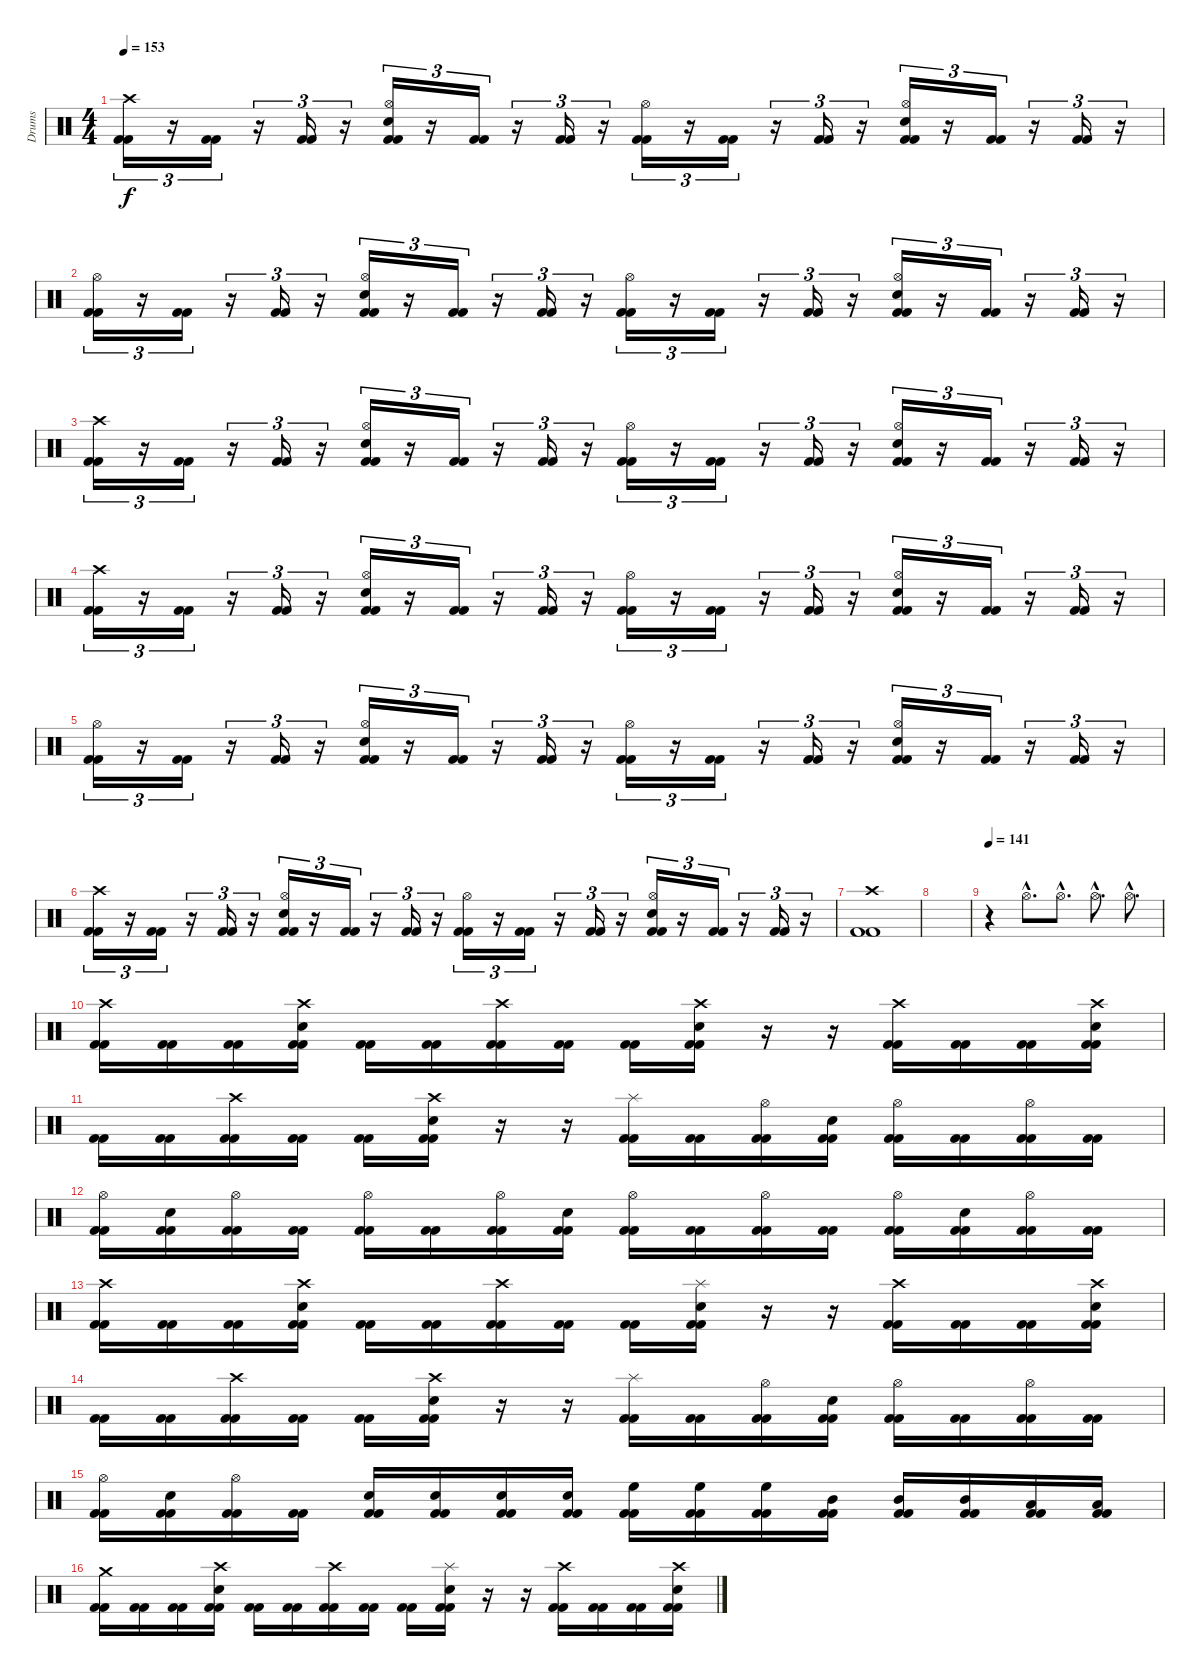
\track ("Drums" "Drums") {instrument percussion}
\staff {score}
\articulation defaults
\ts (4 4)
\tempo 153
\clef neutral
\ks c
("Crash high (hit)" "Kick (hit) 2" "Kick (hit) 2").16{tu (3 2) dy f} r.16{tu (3 2)} ("Kick (hit) 2" "Kick (hit) 2").16{tu (3 2)} r.16{tu (3 2)} ("Kick (hit) 2" "Kick (hit) 2").16{tu (3 2)} r.16{tu (3 2)} ("Hi-Hat (open)" "Snare (hit) 2" "Kick (hit) 2" "Kick (hit) 2").16{tu (3 2)} r.16{tu (3 2)} ("Kick (hit) 2" "Kick (hit) 2").16{tu (3 2)} r.16{tu (3 2)} ("Kick (hit) 2" "Kick (hit) 2").16{tu (3 2)} r.16{tu (3 2)} ("Hi-Hat (open)" "Kick (hit) 2" "Kick (hit) 2").16{tu (3 2)} r.16{tu (3 2)} ("Kick (hit) 2" "Kick (hit) 2").16{tu (3 2)} r.16{tu (3 2)} ("Kick (hit) 2" "Kick (hit) 2").16{tu (3 2)} r.16{tu (3 2)} ("Hi-Hat (open)" "Snare (hit) 2" "Kick (hit) 2" "Kick (hit) 2").16{tu (3 2)} r.16{tu (3 2)} ("Kick (hit) 2" "Kick (hit) 2").16{tu (3 2)} r.16{tu (3 2)} ("Kick (hit) 2" "Kick (hit) 2").16{tu (3 2)} r.16{tu (3 2)} |
("Hi-Hat (open)" "Kick (hit) 2" "Kick (hit) 2").16{tu (3 2)} r.16{tu (3 2)} ("Kick (hit) 2" "Kick (hit) 2").16{tu (3 2)} r.16{tu (3 2)} ("Kick (hit) 2" "Kick (hit) 2").16{tu (3 2)} r.16{tu (3 2)} ("Hi-Hat (open)" "Snare (hit) 2" "Kick (hit) 2" "Kick (hit) 2").16{tu (3 2)} r.16{tu (3 2)} ("Kick (hit) 2" "Kick (hit) 2").16{tu (3 2)} r.16{tu (3 2)} ("Kick (hit) 2" "Kick (hit) 2").16{tu (3 2)} r.16{tu (3 2)} ("Hi-Hat (open)" "Kick (hit) 2" "Kick (hit) 2").16{tu (3 2)} r.16{tu (3 2)} ("Kick (hit) 2" "Kick (hit) 2").16{tu (3 2)} r.16{tu (3 2)} ("Kick (hit) 2" "Kick (hit) 2").16{tu (3 2)} r.16{tu (3 2)} ("Hi-Hat (open)" "Snare (hit) 2" "Kick (hit) 2" "Kick (hit) 2").16{tu (3 2)} r.16{tu (3 2)} ("Kick (hit) 2" "Kick (hit) 2").16{tu (3 2)} r.16{tu (3 2)} ("Kick (hit) 2" "Kick (hit) 2").16{tu (3 2)} r.16{tu (3 2)} |
("Crash high (hit)" "Kick (hit) 2" "Kick (hit) 2").16{tu (3 2)} r.16{tu (3 2)} ("Kick (hit) 2" "Kick (hit) 2").16{tu (3 2)} r.16{tu (3 2)} ("Kick (hit) 2" "Kick (hit) 2").16{tu (3 2)} r.16{tu (3 2)} ("Hi-Hat (open)" "Snare (hit) 2" "Kick (hit) 2" "Kick (hit) 2").16{tu (3 2)} r.16{tu (3 2)} ("Kick (hit) 2" "Kick (hit) 2").16{tu (3 2)} r.16{tu (3 2)} ("Kick (hit) 2" "Kick (hit) 2").16{tu (3 2)} r.16{tu (3 2)} ("Hi-Hat (open)" "Kick (hit) 2" "Kick (hit) 2").16{tu (3 2)} r.16{tu (3 2)} ("Kick (hit) 2" "Kick (hit) 2").16{tu (3 2)} r.16{tu (3 2)} ("Kick (hit) 2" "Kick (hit) 2").16{tu (3 2)} r.16{tu (3 2)} ("Hi-Hat (open)" "Snare (hit) 2" "Kick (hit) 2" "Kick (hit) 2").16{tu (3 2)} r.16{tu (3 2)} ("Kick (hit) 2" "Kick (hit) 2").16{tu (3 2)} r.16{tu (3 2)} ("Kick (hit) 2" "Kick (hit) 2").16{tu (3 2)} r.16{tu (3 2)} |
("Crash high (hit)" "Kick (hit) 2" "Kick (hit) 2").16{tu (3 2)} r.16{tu (3 2)} ("Kick (hit) 2" "Kick (hit) 2").16{tu (3 2)} r.16{tu (3 2)} ("Kick (hit) 2" "Kick (hit) 2").16{tu (3 2)} r.16{tu (3 2)} ("Hi-Hat (open)" "Snare (hit) 2" "Kick (hit) 2" "Kick (hit) 2").16{tu (3 2)} r.16{tu (3 2)} ("Kick (hit) 2" "Kick (hit) 2").16{tu (3 2)} r.16{tu (3 2)} ("Kick (hit) 2" "Kick (hit) 2").16{tu (3 2)} r.16{tu (3 2)} ("Hi-Hat (open)" "Kick (hit) 2" "Kick (hit) 2").16{tu (3 2)} r.16{tu (3 2)} ("Kick (hit) 2" "Kick (hit) 2").16{tu (3 2)} r.16{tu (3 2)} ("Kick (hit) 2" "Kick (hit) 2").16{tu (3 2)} r.16{tu (3 2)} ("Hi-Hat (open)" "Snare (hit) 2" "Kick (hit) 2" "Kick (hit) 2").16{tu (3 2)} r.16{tu (3 2)} ("Kick (hit) 2" "Kick (hit) 2").16{tu (3 2)} r.16{tu (3 2)} ("Kick (hit) 2" "Kick (hit) 2").16{tu (3 2)} r.16{tu (3 2)} |
("Hi-Hat (open)" "Kick (hit) 2" "Kick (hit) 2").16{tu (3 2)} r.16{tu (3 2)} ("Kick (hit) 2" "Kick (hit) 2").16{tu (3 2)} r.16{tu (3 2)} ("Kick (hit) 2" "Kick (hit) 2").16{tu (3 2)} r.16{tu (3 2)} ("Hi-Hat (open)" "Snare (hit) 2" "Kick (hit) 2" "Kick (hit) 2").16{tu (3 2)} r.16{tu (3 2)} ("Kick (hit) 2" "Kick (hit) 2").16{tu (3 2)} r.16{tu (3 2)} ("Kick (hit) 2" "Kick (hit) 2").16{tu (3 2)} r.16{tu (3 2)} ("Hi-Hat (open)" "Kick (hit) 2" "Kick (hit) 2").16{tu (3 2)} r.16{tu (3 2)} ("Kick (hit) 2" "Kick (hit) 2").16{tu (3 2)} r.16{tu (3 2)} ("Kick (hit) 2" "Kick (hit) 2").16{tu (3 2)} r.16{tu (3 2)} ("Hi-Hat (open)" "Snare (hit) 2" "Kick (hit) 2" "Kick (hit) 2").16{tu (3 2)} r.16{tu (3 2)} ("Kick (hit) 2" "Kick (hit) 2").16{tu (3 2)} r.16{tu (3 2)} ("Kick (hit) 2" "Kick (hit) 2").16{tu (3 2)} r.16{tu (3 2)} |
("Crash high (hit)" "Kick (hit) 2" "Kick (hit) 2").16{tu (3 2)} r.16{tu (3 2)} ("Kick (hit) 2" "Kick (hit) 2").16{tu (3 2)} r.16{tu (3 2)} ("Kick (hit) 2" "Kick (hit) 2").16{tu (3 2)} r.16{tu (3 2)} ("Hi-Hat (open)" "Snare (hit) 2" "Kick (hit) 2" "Kick (hit) 2").16{tu (3 2)} r.16{tu (3 2)} ("Kick (hit) 2" "Kick (hit) 2").16{tu (3 2)} r.16{tu (3 2)} ("Kick (hit) 2" "Kick (hit) 2").16{tu (3 2)} r.16{tu (3 2)} ("Hi-Hat (open)" "Kick (hit) 2" "Kick (hit) 2").16{tu (3 2)} r.16{tu (3 2)} ("Kick (hit) 2" "Kick (hit) 2").16{tu (3 2)} r.16{tu (3 2)} ("Kick (hit) 2" "Kick (hit) 2").16{tu (3 2)} r.16{tu (3 2)} ("Hi-Hat (open)" "Snare (hit) 2" "Kick (hit) 2" "Kick (hit) 2").16{tu (3 2)} r.16{tu (3 2)} ("Kick (hit) 2" "Kick (hit) 2").16{tu (3 2)} r.16{tu (3 2)} ("Kick (hit) 2" "Kick (hit) 2").16{tu (3 2)} r.16{tu (3 2)} |
("Crash high (hit)" "Kick (hit) 2" "Kick (hit) 2").1 |
|
\tempo 141
r.4 "Hi-Hat (open)"{hac}.8{d} "Hi-Hat (open)"{hac}.8{d} "Hi-Hat (open)"{hac}.8{d} "Hi-Hat (open)"{hac}.8{d} |
("Crash high (hit)" "Kick (hit) 2" "Kick (hit) 2").16 ("Kick (hit) 2" "Kick (hit) 2").16 ("Kick (hit) 2" "Kick (hit) 2").16 ("Crash high (hit)" "Snare (hit) 2" "Kick (hit) 2" "Kick (hit) 2").16 ("Kick (hit) 2" "Kick (hit) 2").16 ("Kick (hit) 2" "Kick (hit) 2").16 ("Crash high (hit)" "Kick (hit) 2" "Kick (hit) 2").16 ("Kick (hit) 2" "Kick (hit) 2").16 ("Kick (hit) 2" "Kick (hit) 2").16 ("Crash high (hit)" "Snare (hit) 2" "Kick (hit) 2" "Kick (hit) 2").16 r.16 r.16 ("Crash high (hit)" "Kick (hit) 2" "Kick (hit) 2").16 ("Kick (hit) 2" "Kick (hit) 2").16 ("Kick (hit) 2" "Kick (hit) 2").16 ("Crash high (hit)" "Snare (hit) 2" "Kick (hit) 2" "Kick (hit) 2").16 |
("Kick (hit) 2" "Kick (hit) 2").16 ("Kick (hit) 2" "Kick (hit) 2").16 ("Crash high (hit)" "Kick (hit) 2" "Kick (hit) 2").16 ("Kick (hit) 2" "Kick (hit) 2").16 ("Kick (hit) 2" "Kick (hit) 2").16 ("Crash high (hit)" "Snare (hit) 2" "Kick (hit) 2" "Kick (hit) 2").16 r.16 r.16 ("Splash (hit)" "Kick (hit) 2" "Kick (hit) 2").16 ("Kick (hit) 2" "Kick (hit) 2").16 ("Hi-Hat (open)" "Kick (hit) 2" "Kick (hit) 2").16 ("Snare (hit) 2" "Kick (hit) 2" "Kick (hit) 2").16 ("Hi-Hat (open)" "Kick (hit) 2" "Kick (hit) 2").16 ("Kick (hit) 2" "Kick (hit) 2").16 ("Hi-Hat (open)" "Kick (hit) 2" "Kick (hit) 2").16 ("Kick (hit) 2" "Kick (hit) 2").16 |
("Hi-Hat (open)" "Kick (hit) 2" "Kick (hit) 2").16 ("Snare (hit) 2" "Kick (hit) 2" "Kick (hit) 2").16 ("Hi-Hat (open)" "Kick (hit) 2" "Kick (hit) 2").16 ("Kick (hit) 2" "Kick (hit) 2").16 ("Hi-Hat (open)" "Kick (hit) 2" "Kick (hit) 2").16 ("Kick (hit) 2" "Kick (hit) 2").16 ("Hi-Hat (open)" "Kick (hit) 2" "Kick (hit) 2").16 ("Snare (hit) 2" "Kick (hit) 2" "Kick (hit) 2").16 ("Hi-Hat (open)" "Kick (hit) 2" "Kick (hit) 2").16 ("Kick (hit) 2" "Kick (hit) 2").16 ("Hi-Hat (open)" "Kick (hit) 2" "Kick (hit) 2").16 ("Kick (hit) 2" "Kick (hit) 2").16 ("Hi-Hat (open)" "Kick (hit) 2" "Kick (hit) 2").16 ("Snare (hit) 2" "Kick (hit) 2" "Kick (hit) 2").16 ("Hi-Hat (open)" "Kick (hit) 2" "Kick (hit) 2").16 ("Kick (hit) 2" "Kick (hit) 2").16 |
("Crash high (hit)" "Kick (hit) 2" "Kick (hit) 2").16 ("Kick (hit) 2" "Kick (hit) 2").16 ("Kick (hit) 2" "Kick (hit) 2").16 ("Crash high (hit)" "Snare (hit) 2" "Kick (hit) 2" "Kick (hit) 2").16 ("Kick (hit) 2" "Kick (hit) 2").16 ("Kick (hit) 2" "Kick (hit) 2").16 ("Crash high (hit)" "Kick (hit) 2" "Kick (hit) 2").16 ("Kick (hit) 2" "Kick (hit) 2").16 ("Kick (hit) 2" "Kick (hit) 2").16 ("Splash (hit)" "Snare (hit) 2" "Kick (hit) 2" "Kick (hit) 2").16 r.16 r.16 ("Crash high (hit)" "Kick (hit) 2" "Kick (hit) 2").16 ("Kick (hit) 2" "Kick (hit) 2").16 ("Kick (hit) 2" "Kick (hit) 2").16 ("Crash high (hit)" "Snare (hit) 2" "Kick (hit) 2" "Kick (hit) 2").16 |
("Kick (hit) 2" "Kick (hit) 2").16 ("Kick (hit) 2" "Kick (hit) 2").16 ("Crash high (hit)" "Kick (hit) 2" "Kick (hit) 2").16 ("Kick (hit) 2" "Kick (hit) 2").16 ("Kick (hit) 2" "Kick (hit) 2").16 ("Crash high (hit)" "Snare (hit) 2" "Kick (hit) 2" "Kick (hit) 2").16 r.16 r.16 ("Splash (hit)" "Kick (hit) 2" "Kick (hit) 2").16 ("Kick (hit) 2" "Kick (hit) 2").16 ("Hi-Hat (open)" "Kick (hit) 2" "Kick (hit) 2").16 ("Snare (hit) 2" "Kick (hit) 2" "Kick (hit) 2").16 ("Hi-Hat (open)" "Kick (hit) 2" "Kick (hit) 2").16 ("Kick (hit) 2" "Kick (hit) 2").16 ("Hi-Hat (open)" "Kick (hit) 2" "Kick (hit) 2").16 ("Kick (hit) 2" "Kick (hit) 2").16 |
("Hi-Hat (open)" "Kick (hit) 2" "Kick (hit) 2").16 ("Snare (hit) 2" "Kick (hit) 2" "Kick (hit) 2").16 ("Hi-Hat (open)" "Kick (hit) 2" "Kick (hit) 2").16 ("Kick (hit) 2" "Kick (hit) 2").16 ("Snare (hit) 2" "Kick (hit) 2" "Kick (hit) 2").16 ("Snare (hit) 2" "Kick (hit) 2" "Kick (hit) 2").16 ("Snare (hit) 2" "Kick (hit) 2" "Kick (hit) 2").16 ("Snare (hit) 2" "Kick (hit) 2" "Kick (hit) 2").16 ("High Floor Tom (hit)" "Kick (hit) 2" "Kick (hit) 2").16 ("High Floor Tom (hit)" "Kick (hit) 2" "Kick (hit) 2").16 ("High Floor Tom (hit)" "Kick (hit) 2" "Kick (hit) 2").16 ("Mid Tom (hit)" "Kick (hit) 2" "Kick (hit) 2").16 ("Mid Tom (hit)" "Kick (hit) 2" "Kick (hit) 2").16 ("Mid Tom (hit)" "Kick (hit) 2" "Kick (hit) 2").16 ("Low Tom (hit)" "Kick (hit) 2" "Kick (hit) 2").16 ("Low Tom (hit)" "Kick (hit) 2" "Kick (hit) 2").16 |
("Crash medium (hit)" "Kick (hit) 2" "Kick (hit) 2").16 ("Kick (hit) 2" "Kick (hit) 2").16 ("Kick (hit) 2" "Kick (hit) 2").16 ("Crash high (hit)" "Snare (hit) 2" "Kick (hit) 2" "Kick (hit) 2").16 ("Kick (hit) 2" "Kick (hit) 2").16 ("Kick (hit) 2" "Kick (hit) 2").16 ("Crash high (hit)" "Kick (hit) 2" "Kick (hit) 2").16 ("Kick (hit) 2" "Kick (hit) 2").16 ("Kick (hit) 2" "Kick (hit) 2").16 ("Splash (hit)" "Snare (hit) 2" "Kick (hit) 2" "Kick (hit) 2").16 r.16 r.16 ("Crash high (hit)" "Kick (hit) 2" "Kick (hit) 2").16 ("Kick (hit) 2" "Kick (hit) 2").16 ("Kick (hit) 2" "Kick (hit) 2").16 ("Crash high (hit)" "Snare (hit) 2" "Kick (hit) 2" "Kick (hit) 2").16
